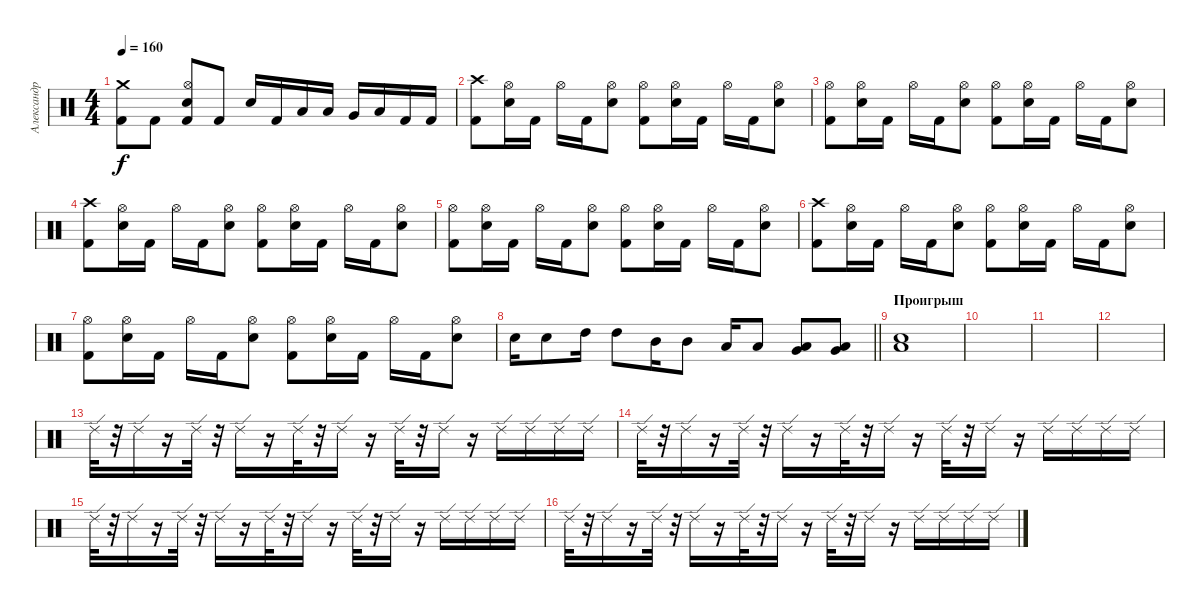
\track ("Александр Карпухин" "Александр ") {instrument percussion}
\staff {score}
\articulation defaults
\ts (4 4)
\tempo 160
\clef neutral
\ks c
("Crash medium (hit)" "Kick (hit) 2").8{dy f} "Kick (hit) 2".8 ("Hi-Hat (open)" "Electric Snare (hit)" "Kick (hit) 2").8 "Kick (hit) 2".8 "Electric Snare (hit)".16 "Kick (hit) 2".16 "Low Tom (hit)".16 "Low Tom (hit)".16 "Very Low Tom (hit)".16 "Low Floor Tom (hit)".16 "Kick (hit) 2".16 "Kick (hit) 2".16 |
("Crash high (hit)" "Kick (hit) 2").8 ("Hi-Hat (open)" "Electric Snare (hit)").16 "Kick (hit) 2".16 "Hi-Hat (open)".16 "Kick (hit) 2".16 ("Hi-Hat (open)" "Electric Snare (hit)").8 ("Hi-Hat (open)" "Kick (hit) 2").8 ("Hi-Hat (open)" "Electric Snare (hit)").16 "Kick (hit) 2".16 "Hi-Hat (open)".16 "Kick (hit) 2".16 ("Hi-Hat (open)" "Electric Snare (hit)").8 |
("Hi-Hat (open)" "Kick (hit) 2").8 ("Hi-Hat (open)" "Electric Snare (hit)").16 "Kick (hit) 2".16 "Hi-Hat (open)".16 "Kick (hit) 2".16 ("Hi-Hat (open)" "Electric Snare (hit)").8 ("Hi-Hat (open)" "Kick (hit) 2").8 ("Hi-Hat (open)" "Electric Snare (hit)").16 "Kick (hit) 2".16 "Hi-Hat (open)".16 "Kick (hit) 2".16 ("Hi-Hat (open)" "Electric Snare (hit)").8 |
("Crash high (hit)" "Kick (hit) 2").8 ("Hi-Hat (open)" "Electric Snare (hit)").16 "Kick (hit) 2".16 "Hi-Hat (open)".16 "Kick (hit) 2".16 ("Hi-Hat (open)" "Electric Snare (hit)").8 ("Hi-Hat (open)" "Kick (hit) 2").8 ("Hi-Hat (open)" "Electric Snare (hit)").16 "Kick (hit) 2".16 "Hi-Hat (open)".16 "Kick (hit) 2".16 ("Hi-Hat (open)" "Electric Snare (hit)").8 |
("Hi-Hat (open)" "Kick (hit) 2").8 ("Hi-Hat (open)" "Electric Snare (hit)").16 "Kick (hit) 2".16 "Hi-Hat (open)".16 "Kick (hit) 2".16 ("Hi-Hat (open)" "Electric Snare (hit)").8 ("Hi-Hat (open)" "Kick (hit) 2").8 ("Hi-Hat (open)" "Electric Snare (hit)").16 "Kick (hit) 2".16 "Hi-Hat (open)".16 "Kick (hit) 2".16 ("Hi-Hat (open)" "Electric Snare (hit)").8 |
("Crash high (hit)" "Kick (hit) 2").8 ("Hi-Hat (open)" "Electric Snare (hit)").16 "Kick (hit) 2".16 "Hi-Hat (open)".16 "Kick (hit) 2".16 ("Hi-Hat (open)" "Electric Snare (hit)").8 ("Hi-Hat (open)" "Kick (hit) 2").8 ("Hi-Hat (open)" "Electric Snare (hit)").16 "Kick (hit) 2".16 "Hi-Hat (open)".16 "Kick (hit) 2".16 ("Hi-Hat (open)" "Electric Snare (hit)").8 |
("Hi-Hat (open)" "Kick (hit) 2").8 ("Hi-Hat (open)" "Electric Snare (hit)").16 "Kick (hit) 2".16 "Hi-Hat (open)".16 "Kick (hit) 2".16 ("Hi-Hat (open)" "Electric Snare (hit)").8 ("Hi-Hat (open)" "Kick (hit) 2").8 ("Hi-Hat (open)" "Electric Snare (hit)").16 "Kick (hit) 2".16 "Hi-Hat (open)".16 "Kick (hit) 2".16 ("Hi-Hat (open)" "Electric Snare (hit)").8 |
\barLineRight lightlight "Electric Snare (hit)".16 "Electric Snare (hit)".8 "High Tom (hit)".16 "High Tom (hit)".8 "Mid Tom (hit)".16 "Mid Tom (hit)".8 "Low Tom (hit)".16 "Low Tom (hit)".8
("Very Low Tom (hit)" "Low Floor Tom (hit)").8 ("Very Low Tom (hit)" "Low Floor Tom (hit)").8 |
\section ("" "Проигрыш")
("Low Floor Tom (hit)" "Electric Snare (hit)").1 |
|
|
|
"Ride (edge) 2".32 r.32 "Ride (edge) 2".16 r.16 "Ride (edge) 2".32 r.32 "Ride (edge) 2".16 r.16 "Ride (edge) 2".32 r.32 "Ride (edge) 2".16 r.16 "Ride (edge) 2".32 r.32 "Ride (edge) 2".16 r.16 "Ride (edge) 2".16 "Ride (edge) 2".16 "Ride (edge) 2".16 "Ride (edge) 2".16 |
"Ride (edge) 2".32 r.32 "Ride (edge) 2".16 r.16 "Ride (edge) 2".32 r.32 "Ride (edge) 2".16 r.16 "Ride (edge) 2".32 r.32 "Ride (edge) 2".16 r.16 "Ride (edge) 2".32 r.32 "Ride (edge) 2".16 r.16 "Ride (edge) 2".16 "Ride (edge) 2".16 "Ride (edge) 2".16 "Ride (edge) 2".16 |
"Ride (edge) 2".32 r.32 "Ride (edge) 2".16 r.16 "Ride (edge) 2".32 r.32 "Ride (edge) 2".16 r.16 "Ride (edge) 2".32 r.32 "Ride (edge) 2".16 r.16 "Ride (edge) 2".32 r.32 "Ride (edge) 2".16 r.16 "Ride (edge) 2".16 "Ride (edge) 2".16 "Ride (edge) 2".16 "Ride (edge) 2".16 |
"Ride (edge) 2".32 r.32 "Ride (edge) 2".16 r.16 "Ride (edge) 2".32 r.32 "Ride (edge) 2".16 r.16 "Ride (edge) 2".32 r.32 "Ride (edge) 2".16 r.16 "Ride (edge) 2".32 r.32 "Ride (edge) 2".16 r.16 "Ride (edge) 2".16 "Ride (edge) 2".16 "Ride (edge) 2".16 "Ride (edge) 2".16
